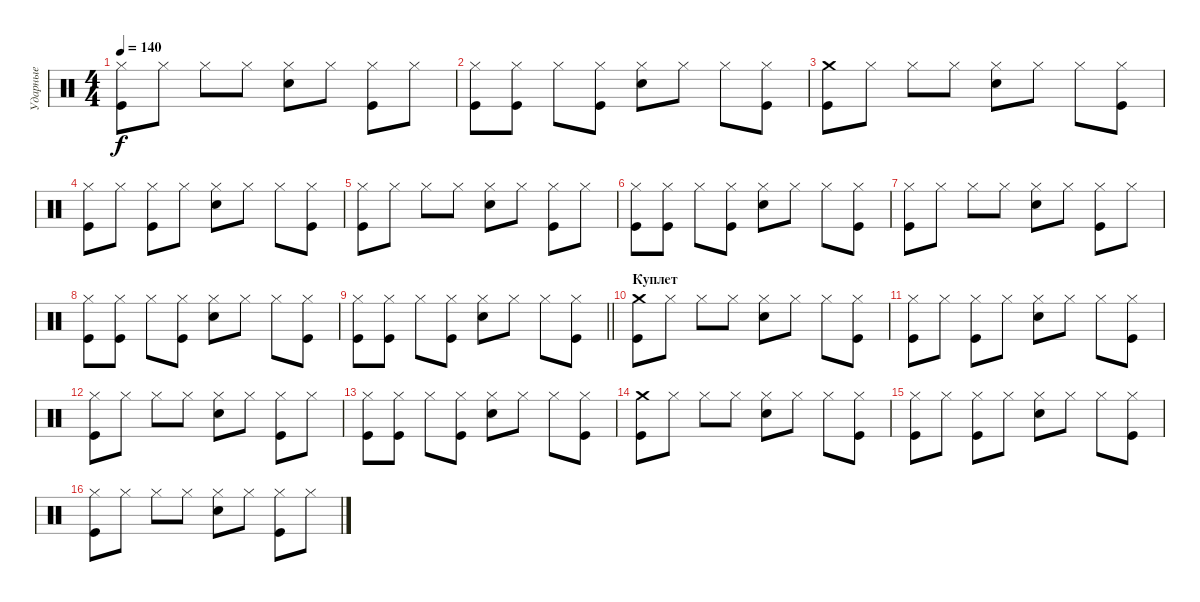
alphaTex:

\track ("Ударные" "Ударные") {instrument percussion}
\staff {score}
\articulation defaults
\ts (4 4)
\tempo 140
\clef neutral
\ks c
("Hi-Hat (closed)" "Kick (hit)").8{dy f} "Hi-Hat (closed)".8 "Hi-Hat (closed)".8 "Hi-Hat (closed)".8 ("Hi-Hat (closed)" "Snare (hit) 2").8 "Hi-Hat (closed)".8 ("Hi-Hat (closed)" "Kick (hit)").8 "Hi-Hat (closed)".8 |
("Hi-Hat (closed)" "Kick (hit)").8 ("Hi-Hat (closed)" "Kick (hit)").8 "Hi-Hat (closed)".8 ("Hi-Hat (closed)" "Kick (hit)").8 ("Hi-Hat (closed)" "Snare (hit) 2").8 "Hi-Hat (closed)".8 "Hi-Hat (closed)".8 ("Hi-Hat (closed)" "Kick (hit)").8 |
("Crash medium (hit)" "Kick (hit)").8 "Hi-Hat (closed)".8 "Hi-Hat (closed)".8 "Hi-Hat (closed)".8 ("Hi-Hat (closed)" "Snare (hit) 2").8 "Hi-Hat (closed)".8 "Hi-Hat (closed)".8 ("Hi-Hat (closed)" "Kick (hit)").8 |
("Hi-Hat (closed)" "Kick (hit)").8 "Hi-Hat (closed)".8 ("Hi-Hat (closed)" "Kick (hit)").8 "Hi-Hat (closed)".8 ("Hi-Hat (closed)" "Snare (hit) 2").8 "Hi-Hat (closed)".8 "Hi-Hat (closed)".8 ("Hi-Hat (closed)" "Kick (hit)").8 |
("Hi-Hat (closed)" "Kick (hit)").8 "Hi-Hat (closed)".8 "Hi-Hat (closed)".8 "Hi-Hat (closed)".8 ("Hi-Hat (closed)" "Snare (hit) 2").8 "Hi-Hat (closed)".8 ("Hi-Hat (closed)" "Kick (hit)").8 "Hi-Hat (closed)".8 |
("Hi-Hat (closed)" "Kick (hit)").8 ("Hi-Hat (closed)" "Kick (hit)").8 "Hi-Hat (closed)".8 ("Hi-Hat (closed)" "Kick (hit)").8 ("Hi-Hat (closed)" "Snare (hit) 2").8 "Hi-Hat (closed)".8 "Hi-Hat (closed)".8 ("Hi-Hat (closed)" "Kick (hit)").8 |
("Hi-Hat (closed)" "Kick (hit)").8 "Hi-Hat (closed)".8 "Hi-Hat (closed)".8 "Hi-Hat (closed)".8 ("Hi-Hat (closed)" "Snare (hit) 2").8 "Hi-Hat (closed)".8 ("Hi-Hat (closed)" "Kick (hit)").8 "Hi-Hat (closed)".8 |
("Hi-Hat (closed)" "Kick (hit)").8 ("Hi-Hat (closed)" "Kick (hit)").8 "Hi-Hat (closed)".8 ("Hi-Hat (closed)" "Kick (hit)").8 ("Hi-Hat (closed)" "Snare (hit) 2").8 "Hi-Hat (closed)".8 "Hi-Hat (closed)".8 ("Hi-Hat (closed)" "Kick (hit)").8 |
\barLineRight lightlight
("Hi-Hat (closed)" "Kick (hit)").8 ("Hi-Hat (closed)" "Kick (hit)").8 "Hi-Hat (closed)".8 ("Hi-Hat (closed)" "Kick (hit)").8 ("Hi-Hat (closed)" "Snare (hit) 2").8 "Hi-Hat (closed)".8 "Hi-Hat (closed)".8 ("Hi-Hat (closed)" "Kick (hit)").8 |
\section ("" "Куплет")
("Crash medium (hit)" "Kick (hit)").8 "Hi-Hat (closed)".8 "Hi-Hat (closed)".8 "Hi-Hat (closed)".8 ("Hi-Hat (closed)" "Snare (hit) 2").8 "Hi-Hat (closed)".8 "Hi-Hat (closed)".8 ("Hi-Hat (closed)" "Kick (hit)").8 |
("Hi-Hat (closed)" "Kick (hit)").8 "Hi-Hat (closed)".8 ("Hi-Hat (closed)" "Kick (hit)").8 "Hi-Hat (closed)".8 ("Hi-Hat (closed)" "Snare (hit) 2").8 "Hi-Hat (closed)".8 "Hi-Hat (closed)".8 ("Hi-Hat (closed)" "Kick (hit)").8 |
("Hi-Hat (closed)" "Kick (hit)").8 "Hi-Hat (closed)".8 "Hi-Hat (closed)".8 "Hi-Hat (closed)".8 ("Hi-Hat (closed)" "Snare (hit) 2").8 "Hi-Hat (closed)".8 ("Hi-Hat (closed)" "Kick (hit)").8 "Hi-Hat (closed)".8 |
("Hi-Hat (closed)" "Kick (hit)").8 ("Hi-Hat (closed)" "Kick (hit)").8 "Hi-Hat (closed)".8 ("Hi-Hat (closed)" "Kick (hit)").8 ("Hi-Hat (closed)" "Snare (hit) 2").8 "Hi-Hat (closed)".8 "Hi-Hat (closed)".8 ("Hi-Hat (closed)" "Kick (hit)").8 |
("Crash medium (hit)" "Kick (hit)").8 "Hi-Hat (closed)".8 "Hi-Hat (closed)".8 "Hi-Hat (closed)".8 ("Hi-Hat (closed)" "Snare (hit) 2").8 "Hi-Hat (closed)".8 "Hi-Hat (closed)".8 ("Hi-Hat (closed)" "Kick (hit)").8 |
("Hi-Hat (closed)" "Kick (hit)").8 "Hi-Hat (closed)".8 ("Hi-Hat (closed)" "Kick (hit)").8 "Hi-Hat (closed)".8 ("Hi-Hat (closed)" "Snare (hit) 2").8 "Hi-Hat (closed)".8 "Hi-Hat (closed)".8 ("Hi-Hat (closed)" "Kick (hit)").8 |
("Hi-Hat (closed)" "Kick (hit)").8 "Hi-Hat (closed)".8 "Hi-Hat (closed)".8 "Hi-Hat (closed)".8 ("Hi-Hat (closed)" "Snare (hit) 2").8 "Hi-Hat (closed)".8 ("Hi-Hat (closed)" "Kick (hit)").8 "Hi-Hat (closed)".8
